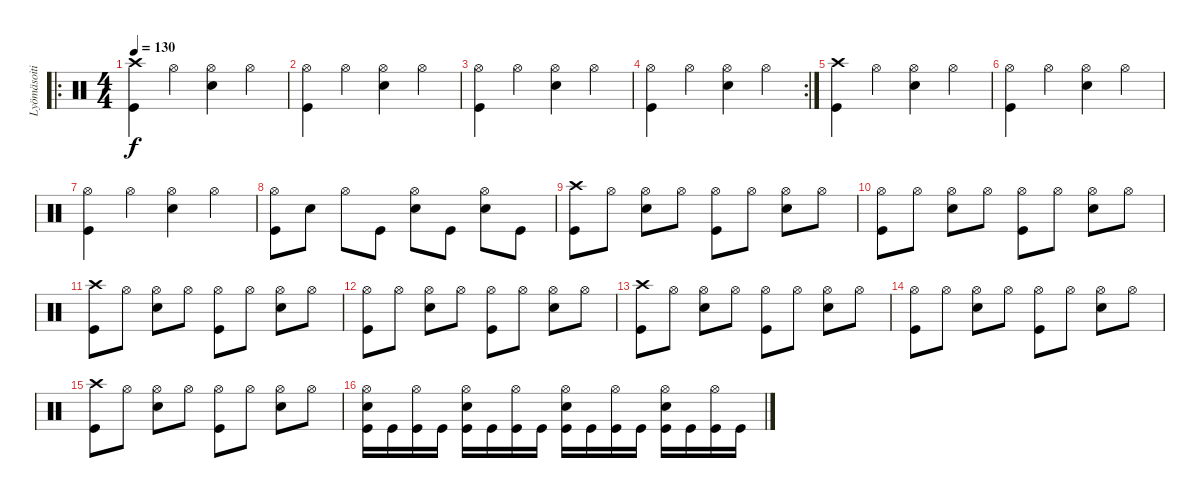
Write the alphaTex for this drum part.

\track ("Lyömäsoitin" "Lyömäsoiti") {instrument percussion}
\staff {score}
\articulation defaults
\ro
\ts (4 4)
\tempo 130
\clef neutral
\ks c
("Crash high (hit)" "Kick (hit)").4{dy f} "Hi-Hat (open)".4 ("Hi-Hat (open)" "Snare (hit) 2").4 "Hi-Hat (open)".4 |
("Hi-Hat (open)" "Kick (hit)").4 "Hi-Hat (open)".4 ("Hi-Hat (open)" "Snare (hit) 2").4 "Hi-Hat (open)".4 |
("Hi-Hat (open)" "Kick (hit)").4 "Hi-Hat (open)".4 ("Hi-Hat (open)" "Snare (hit) 2").4 "Hi-Hat (open)".4 |
\rc 2
("Hi-Hat (open)" "Kick (hit)").4 "Hi-Hat (open)".4 ("Hi-Hat (open)" "Snare (hit) 2").4 "Hi-Hat (open)".4 |
("Crash high (hit)" "Kick (hit)").4 "Hi-Hat (open)".4 ("Hi-Hat (open)" "Snare (hit) 2").4 "Hi-Hat (open)".4 |
("Hi-Hat (open)" "Kick (hit)").4 "Hi-Hat (open)".4 ("Hi-Hat (open)" "Snare (hit) 2").4 "Hi-Hat (open)".4 |
("Hi-Hat (open)" "Kick (hit)").4 "Hi-Hat (open)".4 ("Hi-Hat (open)" "Snare (hit) 2").4 "Hi-Hat (open)".4 |
("Hi-Hat (open)" "Kick (hit)").8 "Snare (hit) 2".8 "Hi-Hat (open)".8 "Kick (hit)".8 ("Hi-Hat (open)" "Snare (hit) 2").8 "Kick (hit)".8 ("Hi-Hat (open)" "Snare (hit) 2").8 "Kick (hit)".8 |
("Crash high (hit)" "Kick (hit)").8 "Hi-Hat (open)".8 ("Hi-Hat (open)" "Snare (hit) 2").8 "Hi-Hat (open)".8 ("Hi-Hat (open)" "Kick (hit)").8 "Hi-Hat (open)".8 ("Hi-Hat (open)" "Snare (hit) 2").8 "Hi-Hat (open)".8 |
("Hi-Hat (open)" "Kick (hit)").8 "Hi-Hat (open)".8 ("Hi-Hat (open)" "Snare (hit) 2").8 "Hi-Hat (open)".8 ("Hi-Hat (open)" "Kick (hit)").8 "Hi-Hat (open)".8 ("Hi-Hat (open)" "Snare (hit) 2").8 "Hi-Hat (open)".8 |
("Crash high (hit)" "Kick (hit)").8 "Hi-Hat (open)".8 ("Hi-Hat (open)" "Snare (hit) 2").8 "Hi-Hat (open)".8 ("Hi-Hat (open)" "Kick (hit)").8 "Hi-Hat (open)".8 ("Hi-Hat (open)" "Snare (hit) 2").8 "Hi-Hat (open)".8 |
("Hi-Hat (open)" "Kick (hit)").8 "Hi-Hat (open)".8 ("Hi-Hat (open)" "Snare (hit) 2").8 "Hi-Hat (open)".8 ("Hi-Hat (open)" "Kick (hit)").8 "Hi-Hat (open)".8 ("Hi-Hat (open)" "Snare (hit) 2").8 "Hi-Hat (open)".8 |
("Crash high (hit)" "Kick (hit)").8 "Hi-Hat (open)".8 ("Hi-Hat (open)" "Snare (hit) 2").8 "Hi-Hat (open)".8 ("Hi-Hat (open)" "Kick (hit)").8 "Hi-Hat (open)".8 ("Hi-Hat (open)" "Snare (hit) 2").8 "Hi-Hat (open)".8 |
("Hi-Hat (open)" "Kick (hit)").8 "Hi-Hat (open)".8 ("Hi-Hat (open)" "Snare (hit) 2").8 "Hi-Hat (open)".8 ("Hi-Hat (open)" "Kick (hit)").8 "Hi-Hat (open)".8 ("Hi-Hat (open)" "Snare (hit) 2").8 "Hi-Hat (open)".8 |
("Crash high (hit)" "Kick (hit)").8 "Hi-Hat (open)".8 ("Hi-Hat (open)" "Snare (hit) 2").8 "Hi-Hat (open)".8 ("Hi-Hat (open)" "Kick (hit)").8 "Hi-Hat (open)".8 ("Hi-Hat (open)" "Snare (hit) 2").8 "Hi-Hat (open)".8 |
("Hi-Hat (open)" "Snare (hit) 2" "Kick (hit)").16 "Kick (hit)".16 ("Hi-Hat (open)" "Kick (hit)").16 "Kick (hit)".16 ("Hi-Hat (open)" "Snare (hit) 2" "Kick (hit)").16 "Kick (hit)".16 ("Hi-Hat (open)" "Kick (hit)").16 "Kick (hit)".16 ("Hi-Hat (open)" "Snare (hit) 2" "Kick (hit)").16 "Kick (hit)".16 ("Hi-Hat (open)" "Kick (hit)").16 "Kick (hit)".16 ("Hi-Hat (open)" "Snare (hit) 2" "Kick (hit)").16 "Kick (hit)".16 ("Hi-Hat (open)" "Kick (hit)").16 "Kick (hit)".16
